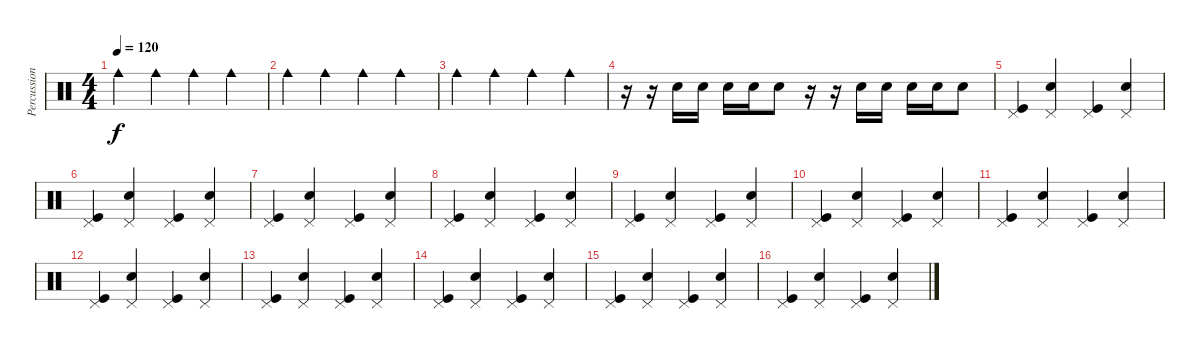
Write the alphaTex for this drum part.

\track ("Percussion" "Percussion") {instrument percussion}
\staff {score}
\articulation defaults
\ts (4 4)
\tempo 120
\clef neutral
\ks c "Cowbell medium (hit)".4{dy f} "Cowbell medium (hit)".4 "Cowbell medium (hit)".4 "Cowbell medium (hit)".4
|
"Cowbell medium (hit)".4 "Cowbell medium (hit)".4 "Cowbell medium (hit)".4 "Cowbell medium (hit)".4 |
"Cowbell medium (hit)".4 "Cowbell medium (hit)".4 "Cowbell medium (hit)".4 "Cowbell medium (hit)".4 |
r.16 r.16 "Snare (hit) 2".16 "Snare (hit) 2".16 "Snare (hit) 2".16 "Snare (hit) 2".16 "Snare (hit) 2".8 r.16 r.16 "Snare (hit) 2".16 "Snare (hit) 2".16 "Snare (hit) 2".16 "Snare (hit) 2".16 "Snare (hit) 2".8 |
("Kick (hit)" "Pedal Hi-Hat (hit)").4 ("Snare (hit) 2" "Pedal Hi-Hat (hit)").4 ("Kick (hit)" "Pedal Hi-Hat (hit)").4 ("Snare (hit) 2" "Pedal Hi-Hat (hit)").4 |
("Kick (hit)" "Pedal Hi-Hat (hit)").4 ("Snare (hit) 2" "Pedal Hi-Hat (hit)").4 ("Kick (hit)" "Pedal Hi-Hat (hit)").4 ("Snare (hit) 2" "Pedal Hi-Hat (hit)").4 |
("Kick (hit)" "Pedal Hi-Hat (hit)").4 ("Snare (hit) 2" "Pedal Hi-Hat (hit)").4 ("Kick (hit)" "Pedal Hi-Hat (hit)").4 ("Snare (hit) 2" "Pedal Hi-Hat (hit)").4 |
("Kick (hit)" "Pedal Hi-Hat (hit)").4 ("Snare (hit) 2" "Pedal Hi-Hat (hit)").4 ("Kick (hit)" "Pedal Hi-Hat (hit)").4 ("Snare (hit) 2" "Pedal Hi-Hat (hit)").4 |
("Kick (hit)" "Pedal Hi-Hat (hit)").4 ("Snare (hit) 2" "Pedal Hi-Hat (hit)").4 ("Kick (hit)" "Pedal Hi-Hat (hit)").4 ("Snare (hit) 2" "Pedal Hi-Hat (hit)").4 |
("Kick (hit)" "Pedal Hi-Hat (hit)").4 ("Snare (hit) 2" "Pedal Hi-Hat (hit)").4 ("Kick (hit)" "Pedal Hi-Hat (hit)").4 ("Snare (hit) 2" "Pedal Hi-Hat (hit)").4 |
("Kick (hit)" "Pedal Hi-Hat (hit)").4 ("Snare (hit) 2" "Pedal Hi-Hat (hit)").4 ("Kick (hit)" "Pedal Hi-Hat (hit)").4 ("Snare (hit) 2" "Pedal Hi-Hat (hit)").4 |
("Kick (hit)" "Pedal Hi-Hat (hit)").4 ("Snare (hit) 2" "Pedal Hi-Hat (hit)").4 ("Kick (hit)" "Pedal Hi-Hat (hit)").4 ("Snare (hit) 2" "Pedal Hi-Hat (hit)").4 |
("Kick (hit)" "Pedal Hi-Hat (hit)").4 ("Snare (hit) 2" "Pedal Hi-Hat (hit)").4 ("Kick (hit)" "Pedal Hi-Hat (hit)").4 ("Snare (hit) 2" "Pedal Hi-Hat (hit)").4 |
("Kick (hit)" "Pedal Hi-Hat (hit)").4 ("Snare (hit) 2" "Pedal Hi-Hat (hit)").4 ("Kick (hit)" "Pedal Hi-Hat (hit)").4 ("Snare (hit) 2" "Pedal Hi-Hat (hit)").4 |
("Kick (hit)" "Pedal Hi-Hat (hit)").4 ("Snare (hit) 2" "Pedal Hi-Hat (hit)").4 ("Kick (hit)" "Pedal Hi-Hat (hit)").4 ("Snare (hit) 2" "Pedal Hi-Hat (hit)").4 |
("Kick (hit)" "Pedal Hi-Hat (hit)").4 ("Snare (hit) 2" "Pedal Hi-Hat (hit)").4 ("Kick (hit)" "Pedal Hi-Hat (hit)").4 ("Snare (hit) 2" "Pedal Hi-Hat (hit)").4
